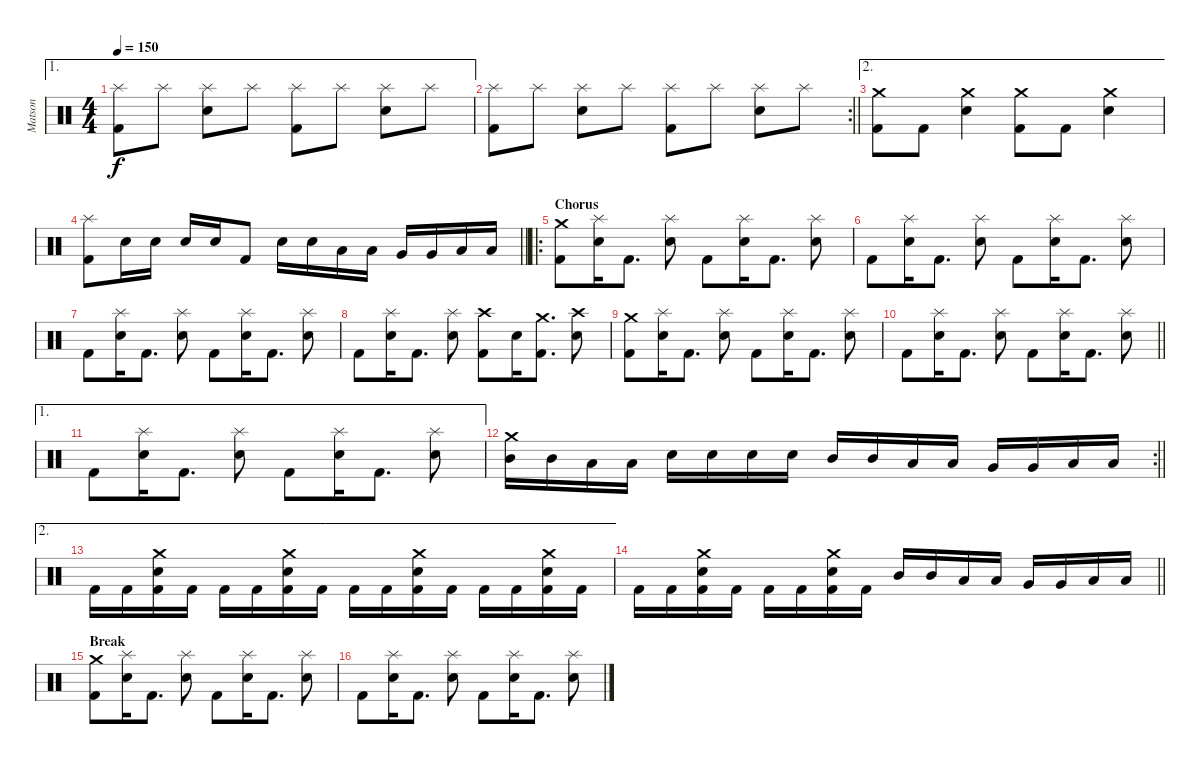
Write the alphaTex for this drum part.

\track ("Matson" "Matson") {instrument percussion}
\staff {score}
\articulation defaults
\ae 1
\ts (4 4)
\section ("" "")
\tempo 150
\clef neutral
\ks c
("Kick (hit) 2" "Splash (hit)").8{dy f} "Splash (hit)".8 ("Snare (hit) 2" "Splash (hit)").8 "Splash (hit)".8 ("Kick (hit) 2" "Splash (hit)").8 "Splash (hit)".8 ("Snare (hit) 2" "Splash (hit)").8 "Splash (hit)".8 |
\rc 2
\barLineRight lightlight
("Kick (hit) 2" "Splash (hit)").8 "Splash (hit)".8 ("Snare (hit) 2" "Splash (hit)").8 "Splash (hit)".8 ("Kick (hit) 2" "Splash (hit)").8 "Splash (hit)".8 ("Snare (hit) 2" "Splash (hit)").8 "Splash (hit)".8 |
\ae 2
\section ("" "")
("Kick (hit) 2" "Crash medium (hit)").8 "Kick (hit) 2".8 ("Snare (hit) 2" "Crash medium (hit)").4 ("Kick (hit) 2" "Crash medium (hit)").8 "Kick (hit) 2".8 ("Snare (hit) 2" "Crash medium (hit)").4 |
\barLineRight lightlight
("Kick (hit) 2" "Splash (hit)").8 "Snare (hit) 2".16 "Snare (hit) 2".16 "Snare (hit) 2".16 "Snare (hit) 2".16 "Kick (hit) 2".8 "Snare (hit) 2".16 "Snare (hit) 2".16 "Low Tom (hit)".16 "Low Tom (hit)".16 "Very Low Tom (hit)".16 "Very Low Tom (hit)".16 "Low Floor Tom (hit)".16 "Low Floor Tom (hit)".16 |
\ro
\section ("" "Chorus")
("Kick (hit) 2" "Crash medium (hit)").8 ("Snare (hit) 2" "Splash (hit)").16 "Kick (hit) 2".8{d} ("Snare (hit) 2" "Splash (hit)").8 "Kick (hit) 2".8 ("Snare (hit) 2" "Splash (hit)").16 "Kick (hit) 2".8{d} ("Snare (hit) 2" "Splash (hit)").8 |
"Kick (hit) 2".8 ("Snare (hit) 2" "Splash (hit)").16 "Kick (hit) 2".8{d} ("Snare (hit) 2" "Splash (hit)").8 "Kick (hit) 2".8 ("Snare (hit) 2" "Splash (hit)").16 "Kick (hit) 2".8{d} ("Snare (hit) 2" "Splash (hit)").8 |
"Kick (hit) 2".8 ("Snare (hit) 2" "Splash (hit)").16 "Kick (hit) 2".8{d} ("Snare (hit) 2" "Splash (hit)").8 "Kick (hit) 2".8 ("Snare (hit) 2" "Splash (hit)").16 "Kick (hit) 2".8{d} ("Snare (hit) 2" "Splash (hit)").8 |
"Kick (hit) 2".8 ("Snare (hit) 2" "Splash (hit)").16 "Kick (hit) 2".8{d} ("Snare (hit) 2" "Splash (hit)").8 ("Kick (hit) 2" "Crash high (hit)").8 "Snare (hit) 2".16 ("Kick (hit) 2" "Crash medium (hit)").8{d} ("Snare (hit) 2" "Crash high (hit)").8 |
("Kick (hit) 2" "Crash medium (hit)").8 ("Snare (hit) 2" "Splash (hit)").16 "Kick (hit) 2".8{d} ("Snare (hit) 2" "Splash (hit)").8 "Kick (hit) 2".8 ("Snare (hit) 2" "Splash (hit)").16 "Kick (hit) 2".8{d} ("Snare (hit) 2" "Splash (hit)").8 |
\barLineRight lightlight "Kick (hit) 2".8
("Snare (hit) 2" "Splash (hit)").16 "Kick (hit) 2".8{d} ("Snare (hit) 2" "Splash (hit)").8 "Kick (hit) 2".8 ("Snare (hit) 2" "Splash (hit)").16 "Kick (hit) 2".8{d} ("Snare (hit) 2" "Splash (hit)").8 |
\ae 1
\section ("" "")
"Kick (hit) 2".8 ("Snare (hit) 2" "Splash (hit)").16 "Kick (hit) 2".8{d} ("Snare (hit) 2" "Splash (hit)").8 "Kick (hit) 2".8 ("Snare (hit) 2" "Splash (hit)").16 "Kick (hit) 2".8{d} ("Snare (hit) 2" "Splash (hit)").8 |
\rc 2
\barLineRight lightlight
("Mid Tom (hit)" "Crash medium (hit)").16 "Mid Tom (hit)".16 "Low Tom (hit)".16 "Low Tom (hit)".16 "Snare (hit) 2".16 "Snare (hit) 2".16 "Snare (hit) 2".16 "Snare (hit) 2".16 "Mid Tom (hit)".16 "Mid Tom (hit)".16 "Low Tom (hit)".16 "Low Tom (hit)".16 "Very Low Tom (hit)".16 "Very Low Tom (hit)".16 "Low Floor Tom (hit)".16 "Low Floor Tom (hit)".16 |
\ae 2
\section ("" "")
"Kick (hit) 2".16 "Kick (hit) 2".16 ("Kick (hit) 2" "Snare (hit) 2" "Crash medium (hit)").16 "Kick (hit) 2".16 "Kick (hit) 2".16 "Kick (hit) 2".16 ("Kick (hit) 2" "Snare (hit) 2" "Crash medium (hit)").16 "Kick (hit) 2".16 "Kick (hit) 2".16 "Kick (hit) 2".16 ("Kick (hit) 2" "Snare (hit) 2" "Crash medium (hit)").16 "Kick (hit) 2".16 "Kick (hit) 2".16 "Kick (hit) 2".16 ("Kick (hit) 2" "Snare (hit) 2" "Crash medium (hit)").16 "Kick (hit) 2".16 |
\barLineRight lightlight "Kick (hit) 2".16 "Kick (hit) 2".16
("Kick (hit) 2" "Snare (hit) 2" "Crash medium (hit)").16 "Kick (hit) 2".16 "Kick (hit) 2".16 "Kick (hit) 2".16 ("Kick (hit) 2" "Snare (hit) 2" "Crash medium (hit)").16 "Kick (hit) 2".16 "Mid Tom (hit)".16 "Mid Tom (hit)".16 "Low Tom (hit)".16 "Low Tom (hit)".16 "Very Low Tom (hit)".16 "Very Low Tom (hit)".16 "Low Floor Tom (hit)".16 "Low Floor Tom (hit)".16 |
\section ("" "Break")
("Kick (hit) 2" "Crash medium (hit)").8 ("Snare (hit) 2" "Splash (hit)").16 "Kick (hit) 2".8{d} ("Snare (hit) 2" "Splash (hit)").8 "Kick (hit) 2".8 ("Snare (hit) 2" "Splash (hit)").16 "Kick (hit) 2".8{d} ("Snare (hit) 2" "Splash (hit)").8 |
"Kick (hit) 2".8 ("Snare (hit) 2" "Splash (hit)").16 "Kick (hit) 2".8{d} ("Snare (hit) 2" "Splash (hit)").8 "Kick (hit) 2".8 ("Snare (hit) 2" "Splash (hit)").16 "Kick (hit) 2".8{d} ("Snare (hit) 2" "Splash (hit)").8
